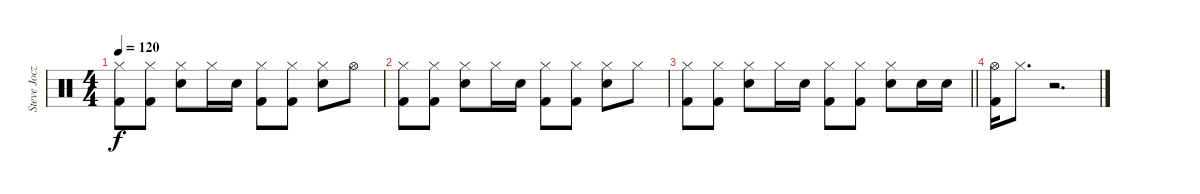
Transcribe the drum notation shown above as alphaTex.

\track ("Steve Jocz" "Steve Jocz") {instrument percussion}
\staff {score}
\articulation defaults
\ts (4 4)
\tempo 120
\clef neutral
\ks c
("Hi-Hat (closed)" "Kick (hit) 2").8{dy f} ("Hi-Hat (closed)" "Kick (hit) 2").8 ("Hi-Hat (closed)" "Snare (hit) 2").8 "Hi-Hat (closed)".16 "Snare (hit) 2".16 ("Hi-Hat (closed)" "Kick (hit) 2").8 ("Hi-Hat (closed)" "Kick (hit) 2").8 ("Hi-Hat (closed)" "Snare (hit) 2").8 "Hi-Hat (open)".8 |
("Hi-Hat (closed)" "Kick (hit) 2").8 ("Hi-Hat (closed)" "Kick (hit) 2").8 ("Hi-Hat (closed)" "Snare (hit) 2").8 "Hi-Hat (closed)".16 "Snare (hit) 2".16 ("Hi-Hat (closed)" "Kick (hit) 2").8 ("Hi-Hat (closed)" "Kick (hit) 2").8 ("Hi-Hat (closed)" "Snare (hit) 2").8 "Hi-Hat (closed)".8 |
\barLineRight lightlight
("Hi-Hat (closed)" "Kick (hit) 2").8 ("Hi-Hat (closed)" "Kick (hit) 2").8 ("Hi-Hat (closed)" "Snare (hit) 2").8 "Hi-Hat (closed)".16 "Snare (hit) 2".16 ("Hi-Hat (closed)" "Kick (hit) 2").8 ("Hi-Hat (closed)" "Kick (hit) 2").8 ("Hi-Hat (closed)" "Snare (hit) 2").8 "Snare (hit) 2".16 "Snare (hit) 2".16 |
("Hi-Hat (open)" "Kick (hit) 2").16 "Hi-Hat (closed)".8{d} r.2{d}
